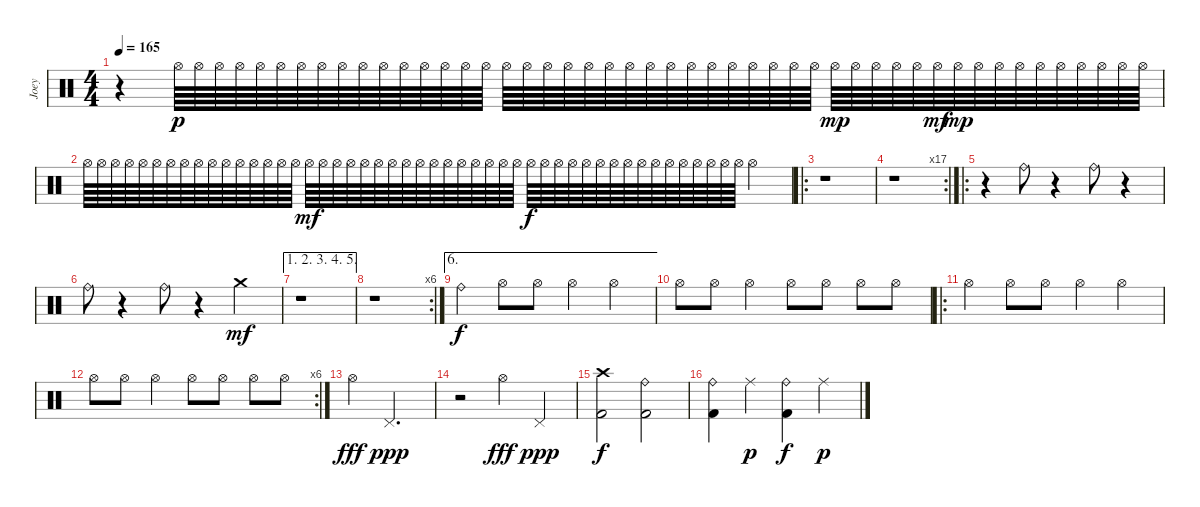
\track ("Joey" "Joey") {instrument percussion}
\staff {score}
\articulation defaults
\ts (4 4)
\tempo 165
\clef neutral
\ks c
r.4{dy f} "Hi-Hat (open)".64{dy p} "Hi-Hat (open)".64 "Hi-Hat (open)".64 "Hi-Hat (open)".64 "Hi-Hat (open)".64 "Hi-Hat (open)".64 "Hi-Hat (open)".64 "Hi-Hat (open)".64 "Hi-Hat (open)".64 "Hi-Hat (open)".64 "Hi-Hat (open)".64 "Hi-Hat (open)".64 "Hi-Hat (open)".64 "Hi-Hat (open)".64 "Hi-Hat (open)".64 "Hi-Hat (open)".64 "Hi-Hat (open)".64 "Hi-Hat (open)".64 "Hi-Hat (open)".64 "Hi-Hat (open)".64 "Hi-Hat (open)".64 "Hi-Hat (open)".64 "Hi-Hat (open)".64 "Hi-Hat (open)".64 "Hi-Hat (open)".64 "Hi-Hat (open)".64 "Hi-Hat (open)".64 "Hi-Hat (open)".64 "Hi-Hat (open)".64 "Hi-Hat (open)".64 "Hi-Hat (open)".64 "Hi-Hat (open)".64 "Hi-Hat (open)".64{dy mp} "Hi-Hat (open)".64 "Hi-Hat (open)".64 "Hi-Hat (open)".64 "Hi-Hat (open)".64 "Hi-Hat (open)".64{dy mf} "Hi-Hat (open)".64{dy mp} "Hi-Hat (open)".64 "Hi-Hat (open)".64 "Hi-Hat (open)".64 "Hi-Hat (open)".64 "Hi-Hat (open)".64 "Hi-Hat (open)".64 "Hi-Hat (open)".64 "Hi-Hat (open)".64 "Hi-Hat (open)".64 |
"Hi-Hat (open)".64 "Hi-Hat (open)".64 "Hi-Hat (open)".64 "Hi-Hat (open)".64 "Hi-Hat (open)".64 "Hi-Hat (open)".64 "Hi-Hat (open)".64 "Hi-Hat (open)".64 "Hi-Hat (open)".64 "Hi-Hat (open)".64 "Hi-Hat (open)".64 "Hi-Hat (open)".64 "Hi-Hat (open)".64 "Hi-Hat (open)".64 "Hi-Hat (open)".64 "Hi-Hat (open)".64 "Hi-Hat (open)".64{dy mf} "Hi-Hat (open)".64 "Hi-Hat (open)".64 "Hi-Hat (open)".64 "Hi-Hat (open)".64 "Hi-Hat (open)".64 "Hi-Hat (open)".64 "Hi-Hat (open)".64 "Hi-Hat (open)".64 "Hi-Hat (open)".64 "Hi-Hat (open)".64 "Hi-Hat (open)".64 "Hi-Hat (open)".64 "Hi-Hat (open)".64 "Hi-Hat (open)".64 "Hi-Hat (open)".64 "Hi-Hat (open)".64{dy f} "Hi-Hat (open)".64 "Hi-Hat (open)".64 "Hi-Hat (open)".64 "Hi-Hat (open)".64 "Hi-Hat (open)".64 "Hi-Hat (open)".64 "Hi-Hat (open)".64 "Hi-Hat (open)".64 "Hi-Hat (open)".64 "Hi-Hat (open)".64 "Hi-Hat (open)".64 "Hi-Hat (open)".64 "Hi-Hat (open)".64 "Hi-Hat (open)".64 "Hi-Hat (open)".64 "Hi-Hat (open)".4 |
\ro
r.1 |
\rc 17
r.1 |
\ro
r.4 "Ride (bell)".8 r.4 "Ride (bell)".8 r.4 |
"Ride (bell)".8 r.4 "Ride (bell)".8 r.4 "Crash medium (hit)".4{dy mf} |
\ae (1 2 3 4 5)
r.1 |
\rc 6
r.1 |
\ae 6 "Ride (bell)".4{dy f} "Hi-Hat (open)".8 "Hi-Hat (open)".8 "Hi-Hat (open)".4 "Hi-Hat (open)".4
|
"Hi-Hat (open)".8 "Hi-Hat (open)".8 "Hi-Hat (open)".4 "Hi-Hat (open)".8 "Hi-Hat (open)".8 "Hi-Hat (open)".8 "Hi-Hat (open)".8 |
\ro "Hi-Hat (open)".4 "Hi-Hat (open)".8 "Hi-Hat (open)".8 "Hi-Hat (open)".4 "Hi-Hat (open)".4
|
\rc 6 "Hi-Hat (open)".8 "Hi-Hat (open)".8 "Hi-Hat (open)".4 "Hi-Hat (open)".8 "Hi-Hat (open)".8 "Hi-Hat (open)".8 "Hi-Hat (open)".8
|
"Hi-Hat (open)".4{dy fff} "Pedal Hi-Hat (hit)".2{d dy ppp} |
r.2 "Hi-Hat (open)".4{dy fff} "Pedal Hi-Hat (hit)".4{dy ppp} |
("Crash high (hit)" "Kick (hit) 2").2{dy f} ("Ride (bell)" "Kick (hit) 2").2 |
("Ride (bell)" "Kick (hit) 2").4 "Ride (middle)".4{dy p} ("Ride (bell)" "Kick (hit) 2").4{dy f} "Ride (middle)".4{dy p}
